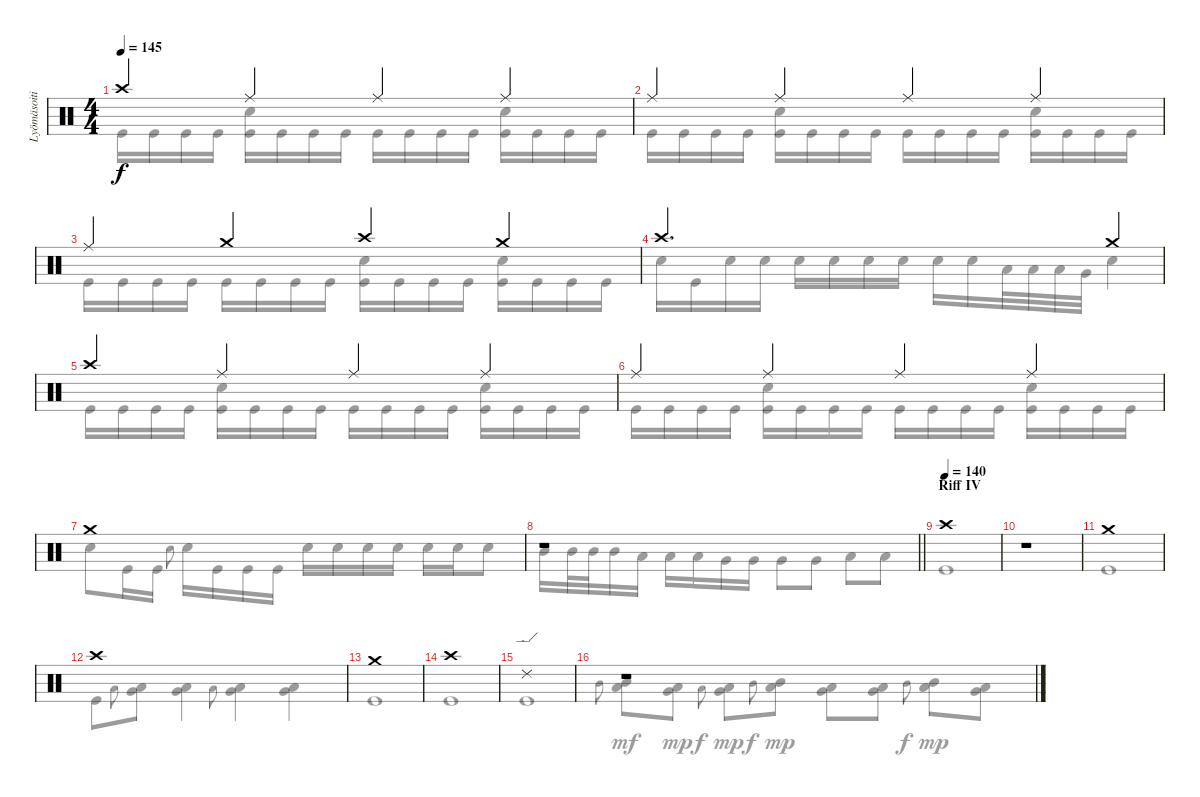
\track ("Lyömäsoitin" "Lyömäsoiti") {instrument percussion}
\staff {score}
\articulation defaults
\voice
\ts (4 4)
\tempo 145
\clef neutral
\ks c "Crash high (hit)".4{dy f} "Ride (middle)".4 "Ride (middle)".4 "Ride (middle)".4
|
"Ride (middle)".4 "Ride (middle)".4 "Ride (middle)".4 "Ride (middle)".4 |
"Ride (middle)".4 "Crash medium (hit)".4 "Crash high (hit)".4 "Crash medium (hit)".4 |
"Crash high (hit)".2{d} "Crash medium (hit)".4 |
"Crash high (hit)".4 "Ride (middle)".4 "Ride (middle)".4 "Ride (middle)".4 |
"Ride (middle)".4 "Ride (middle)".4 "Ride (middle)".4 "Ride (middle)".4 |
"Crash medium (hit)".1 |
\barLineRight lightlight
r.1 |
\section ("" "Riff IV")
\tempo (140)
"Crash high (hit)".1 |
r.1 |
"Crash medium (hit)".1 |
"Crash high (hit)".1 |
"Crash medium (hit)".1 |
"Crash high (hit)".1 |
"Ride (edge) 2".1 |
r.1
\voice
\clef neutral
\ottava regular
\simile none
\ks c "Kick (hit)".16{dy f} "Kick (hit)".16 "Kick (hit)".16 "Kick (hit)".16
("Snare (hit) 2" "Kick (hit)").16 "Kick (hit)".16 "Kick (hit)".16 "Kick (hit)".16 "Kick (hit)".16 "Kick (hit)".16 "Kick (hit)".16 "Kick (hit)".16 ("Snare (hit) 2" "Kick (hit)").16 "Kick (hit)".16 "Kick (hit)".16 "Kick (hit)".16 |
"Kick (hit)".16 "Kick (hit)".16 "Kick (hit)".16 "Kick (hit)".16 ("Snare (hit) 2" "Kick (hit)").16 "Kick (hit)".16 "Kick (hit)".16 "Kick (hit)".16 "Kick (hit)".16 "Kick (hit)".16 "Kick (hit)".16 "Kick (hit)".16 ("Snare (hit) 2" "Kick (hit)").16 "Kick (hit)".16 "Kick (hit)".16 "Kick (hit)".16 |
"Kick (hit)".16 "Kick (hit)".16 "Kick (hit)".16 "Kick (hit)".16 "Kick (hit)".16 "Kick (hit)".16 "Kick (hit)".16 "Kick (hit)".16 ("Snare (hit) 2" "Kick (hit)").16 "Kick (hit)".16 "Kick (hit)".16 "Kick (hit)".16 ("Snare (hit) 2" "Kick (hit)").16 "Kick (hit)".16 "Kick (hit)".16 "Kick (hit)".16 |
"Snare (hit) 2".16 "Kick (hit)".16 "Snare (hit) 2".16 "Snare (hit) 2".16 "Snare (hit) 2".16 "Snare (hit) 2".16 "Snare (hit) 2".16 "Snare (hit) 2".16 "Snare (hit) 2".16 "Snare (hit) 2".16 "Low Tom (hit)".32 "Low Tom (hit)".32 "Low Tom (hit)".32 "Very Low Tom (hit)".32 "Snare (hit) 2".4 |
"Kick (hit)".16 "Kick (hit)".16 "Kick (hit)".16 "Kick (hit)".16 ("Snare (hit) 2" "Kick (hit)").16 "Kick (hit)".16 "Kick (hit)".16 "Kick (hit)".16 "Kick (hit)".16 "Kick (hit)".16 "Kick (hit)".16 "Kick (hit)".16 ("Snare (hit) 2" "Kick (hit)").16 "Kick (hit)".16 "Kick (hit)".16 "Kick (hit)".16 |
"Kick (hit)".16 "Kick (hit)".16 "Kick (hit)".16 "Kick (hit)".16 ("Snare (hit) 2" "Kick (hit)").16 "Kick (hit)".16 "Kick (hit)".16 "Kick (hit)".16 "Kick (hit)".16 "Kick (hit)".16 "Kick (hit)".16 "Kick (hit)".16 ("Snare (hit) 2" "Kick (hit)").16 "Kick (hit)".16 "Kick (hit)".16 "Kick (hit)".16 |
"Snare (hit) 2".8 "Kick (hit)".16 "Kick (hit)".16 "Snare (hit) 2"{h}.8{gr onbeat} "Snare (hit) 2".16 "Kick (hit)".16 "Kick (hit)".16 "Kick (hit)".16 "Snare (hit) 2".16 "Snare (hit) 2".16 "Snare (hit) 2".16 "Snare (hit) 2".16 "Snare (hit) 2".16 "Snare (hit) 2".16 "Snare (hit) 2".8 |
\barLineRight lightlight "Mid Tom (hit)".16 "Mid Tom (hit)".32 "Mid Tom (hit)".32 "Mid Tom (hit)".16 "Low Tom (hit)".16 "Low Tom (hit)".16 "Low Tom (hit)".16 "Very Low Tom (hit)".16 "Very Low Tom (hit)".16 "Very Low Tom (hit)".8 "Very Low Tom (hit)".8 "Low Floor Tom (hit)".8 "Low Floor Tom (hit)".8
|
"Kick (hit)".1 |
r.1 |
"Kick (hit)".1 |
"Kick (hit)".8 "Low Tom (hit)"{h}.8{gr onbeat} ("Low Tom (hit)" "Very Low Tom (hit)").8 ("Low Tom (hit)" "Very Low Tom (hit)").4 "Low Tom (hit)"{h}.8{gr onbeat} ("Low Tom (hit)" "Very Low Tom (hit)").4 ("Low Tom (hit)" "Very Low Tom (hit)").4 |
"Kick (hit)".1 |
"Kick (hit)".1 |
"Kick (hit)".1 |
"Mid Tom (hit)"{h}.8{gr onbeat} ("Mid Tom (hit)" "Low Tom (hit)").8{dy mf} ("Low Tom (hit)" "Very Low Tom (hit)").8{dy mp} "Low Tom (hit)"{h}.8{gr onbeat dy f} ("Low Tom (hit)" "Very Low Tom (hit)").8{dy mp} "Mid Tom (hit)"{h}.8{gr onbeat dy f} ("Mid Tom (hit)" "Low Tom (hit)").8{dy mp} ("Low Tom (hit)" "Very Low Tom (hit)").8 ("Low Tom (hit)" "Very Low Tom (hit)").8 "Mid Tom (hit)"{h}.8{gr onbeat dy f} ("Mid Tom (hit)" "Low Tom (hit)").8{dy mp} ("Low Tom (hit)" "Very Low Tom (hit)").8
